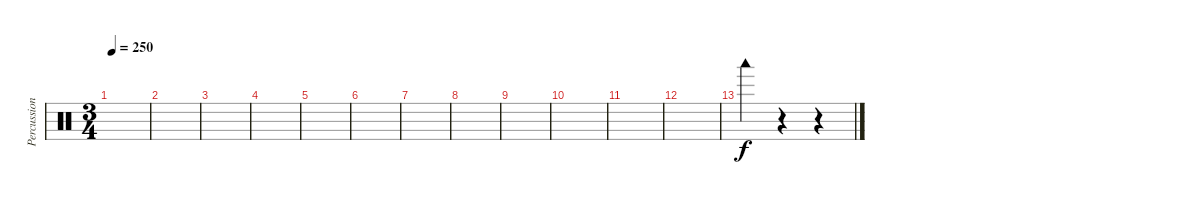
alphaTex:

\track ("Percussion" "Percussion") {instrument percussion}
\staff {score}
\articulation defaults
\ts (3 4)
\tempo 250
\clef neutral
\ks c
|
|
|
|
|
|
|
|
|
|
|
|
"Woodblock low (hit)".4 r.4 r.4
